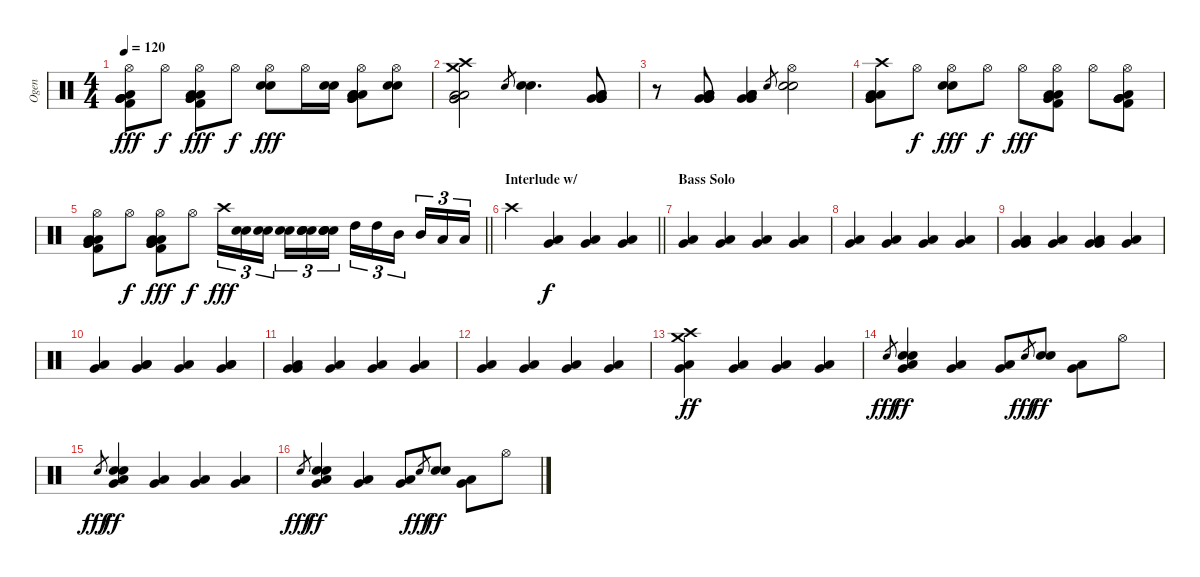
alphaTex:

\track ("Ogen" "Ogen") {instrument percussion}
\staff {score}
\articulation defaults
\ts (4 4)
\tempo 120
\clef neutral
\ks c
("Hi-Hat (open)" "Kick (hit) 2" "Very Low Tom (hit)" "Very Low Tom (hit)" "Low Floor Tom (hit)" "Very Low Tom (hit)").8{dy fff} "Hi-Hat (open)".8{dy f} ("Hi-Hat (open)" "Kick (hit) 2" "Very Low Tom (hit)" "Low Floor Tom (hit)" "Very Low Tom (hit)" "Low Floor Tom (hit)").8{dy fff} "Hi-Hat (open)".8{dy f} ("Hi-Hat (open)" "Snare (hit) 2" "Electric Snare (hit)").8{dy fff} "Hi-Hat (open)".16 ("Snare (hit) 2" "Electric Snare (hit)").16 ("Low Floor Tom (hit)" "Low Floor Tom (hit)" "Low Floor Tom (hit)" "Very Low Tom (hit)" "Very Low Tom (hit)" "Hi-Hat (open)").8 ("Snare (hit) 2" "Electric Snare (hit)" "Hi-Hat (open)").8 |
("Crash high (hit)" "Crash medium (hit)" "Low Floor Tom (hit)" "Very Low Tom (hit)" "Low Floor Tom (hit)" "Very Low Tom (hit)").2 "Snare (hit) 2".8{gr} ("Snare (hit) 2" "Electric Snare (hit)").4{d} ("Very Low Tom (hit)" "Very Low Tom (hit)" "Low Floor Tom (hit)" "Very Low Tom (hit)" "Low Floor Tom (hit)").8 |
r.8 ("Very Low Tom (hit)" "Low Floor Tom (hit)" "Very Low Tom (hit)" "Low Floor Tom (hit)" "Very Low Tom (hit)" "Low Floor Tom (hit)").8 ("Low Floor Tom (hit)" "Very Low Tom (hit)" "Low Floor Tom (hit)" "Very Low Tom (hit)" "Low Floor Tom (hit)").4 "Electric Snare (hit)".8{gr} ("Electric Snare (hit)" "Snare (hit) 2" "Hi-Hat (open)").2 |
("Crash high (hit)" "Very Low Tom (hit)" "Low Floor Tom (hit)" "Very Low Tom (hit)" "Low Floor Tom (hit)" "Very Low Tom (hit)").8 "Hi-Hat (open)".8{dy f} ("Hi-Hat (open)" "Electric Snare (hit)" "Snare (hit) 2").8{dy fff} "Hi-Hat (open)".8{dy f} "Hi-Hat (open)".8{dy fff} ("Hi-Hat (open)" "Very Low Tom (hit)" "Kick (hit) 2" "Low Floor Tom (hit)" "Very Low Tom (hit)" "Low Floor Tom (hit)").8 "Hi-Hat (open)".8 ("Hi-Hat (open)" "Very Low Tom (hit)" "Kick (hit) 2" "Very Low Tom (hit)" "Low Floor Tom (hit)" "Very Low Tom (hit)").8 |
\barLineRight lightlight
("Hi-Hat (open)" "Kick (hit) 2" "Very Low Tom (hit)" "Low Floor Tom (hit)" "Very Low Tom (hit)" "Low Floor Tom (hit)").8 "Hi-Hat (open)".8{dy f} ("Hi-Hat (open)" "Kick (hit) 2" "Very Low Tom (hit)" "Low Floor Tom (hit)" "Very Low Tom (hit)" "Low Floor Tom (hit)").8{dy fff} "Hi-Hat (open)".8{dy f} "Crash high (hit)".16{tu (3 2) dy fff} ("Snare (hit) 2" "Electric Snare (hit)").16{tu (3 2)} ("Electric Snare (hit)" "Snare (hit) 2").16{tu (3 2) beam splitsecondary} ("Snare (hit) 2" "Electric Snare (hit)").16{tu (3 2)} ("Electric Snare (hit)" "Electric Snare (hit)" "Snare (hit) 2" "Snare (hit) 2").16{tu (3 2)} ("Electric Snare (hit)" "Snare (hit) 2" "Snare (hit) 2" "Electric Snare (hit)").16{tu (3 2)} "High Tom (hit)".16{tu (3 2)} "High Tom (hit)".16{tu (3 2)} "Mid Tom (hit)".16{tu (3 2) beam splitsecondary} "Mid Tom (hit)".16{tu (3 2)} "Low Tom (hit)".16{tu (3 2)} "Low Tom (hit)".16{tu (3 2)} |
\section ("" "Interlude w/")
\barLineRight lightlight "Crash high (hit)".4
("Very Low Tom (hit)" "Low Floor Tom (hit)").4{dy f} ("Very Low Tom (hit)" "Low Floor Tom (hit)").4 ("Very Low Tom (hit)" "Low Floor Tom (hit)").4 |
\section ("" "Bass Solo")
("Very Low Tom (hit)" "Low Floor Tom (hit)").4 ("Very Low Tom (hit)" "Low Floor Tom (hit)").4 ("Very Low Tom (hit)" "Low Floor Tom (hit)").4 ("Very Low Tom (hit)" "Low Floor Tom (hit)").4 |
("Very Low Tom (hit)" "Low Floor Tom (hit)").4 ("Very Low Tom (hit)" "Low Floor Tom (hit)").4 ("Very Low Tom (hit)" "Low Floor Tom (hit)").4 ("Very Low Tom (hit)" "Low Floor Tom (hit)").4 |
("Very Low Tom (hit)" "Very Low Tom (hit)" "Low Floor Tom (hit)").4 ("Very Low Tom (hit)" "Low Floor Tom (hit)").4 ("Very Low Tom (hit)" "Very Low Tom (hit)" "Low Floor Tom (hit)").4 ("Very Low Tom (hit)" "Low Floor Tom (hit)").4 |
("Very Low Tom (hit)" "Low Floor Tom (hit)").4 ("Very Low Tom (hit)" "Low Floor Tom (hit)" "Low Floor Tom (hit)").4 ("Very Low Tom (hit)" "Low Floor Tom (hit)").4 ("Very Low Tom (hit)" "Low Floor Tom (hit)" "Low Floor Tom (hit)").4 |
("Very Low Tom (hit)" "Very Low Tom (hit)" "Low Floor Tom (hit)").4 ("Very Low Tom (hit)" "Low Floor Tom (hit)").4 ("Very Low Tom (hit)" "Low Floor Tom (hit)").4 ("Very Low Tom (hit)" "Low Floor Tom (hit)").4 |
("Very Low Tom (hit)" "Low Floor Tom (hit)").4 ("Very Low Tom (hit)" "Low Floor Tom (hit)").4 ("Very Low Tom (hit)" "Low Floor Tom (hit)").4 ("Very Low Tom (hit)" "Low Floor Tom (hit)").4 |
("Very Low Tom (hit)" "Low Floor Tom (hit)" "Crash medium (hit)" "Crash high (hit)").4{dy ff} ("Low Floor Tom (hit)" "Very Low Tom (hit)").4 ("Very Low Tom (hit)" "Low Floor Tom (hit)").4 ("Low Floor Tom (hit)" "Very Low Tom (hit)").4 |
"Electric Snare (hit)".8{gr dy fff} ("Very Low Tom (hit)" "Low Floor Tom (hit)" "Electric Snare (hit)" "Snare (hit) 2").4{dy ff} ("Low Floor Tom (hit)" "Very Low Tom (hit)").4 ("Very Low Tom (hit)" "Low Floor Tom (hit)").8 "Electric Snare (hit)".8{gr dy fff} ("Electric Snare (hit)" "Snare (hit) 2").8{dy ff} ("Low Floor Tom (hit)" "Very Low Tom (hit)").8 "Hi-Hat (open)".8 |
"Electric Snare (hit)".8{gr dy fff} ("Very Low Tom (hit)" "Low Floor Tom (hit)" "Electric Snare (hit)" "Snare (hit) 2").4{dy ff} ("Low Floor Tom (hit)" "Very Low Tom (hit)").4 ("Very Low Tom (hit)" "Low Floor Tom (hit)").4 ("Low Floor Tom (hit)" "Very Low Tom (hit)").4 |
"Electric Snare (hit)".8{gr dy fff} ("Very Low Tom (hit)" "Low Floor Tom (hit)" "Electric Snare (hit)" "Snare (hit) 2").4{dy ff} ("Low Floor Tom (hit)" "Very Low Tom (hit)").4 ("Very Low Tom (hit)" "Low Floor Tom (hit)").8 "Electric Snare (hit)".8{gr dy fff} ("Electric Snare (hit)" "Snare (hit) 2").8{dy ff} ("Low Floor Tom (hit)" "Very Low Tom (hit)").8 "Hi-Hat (open)".8
